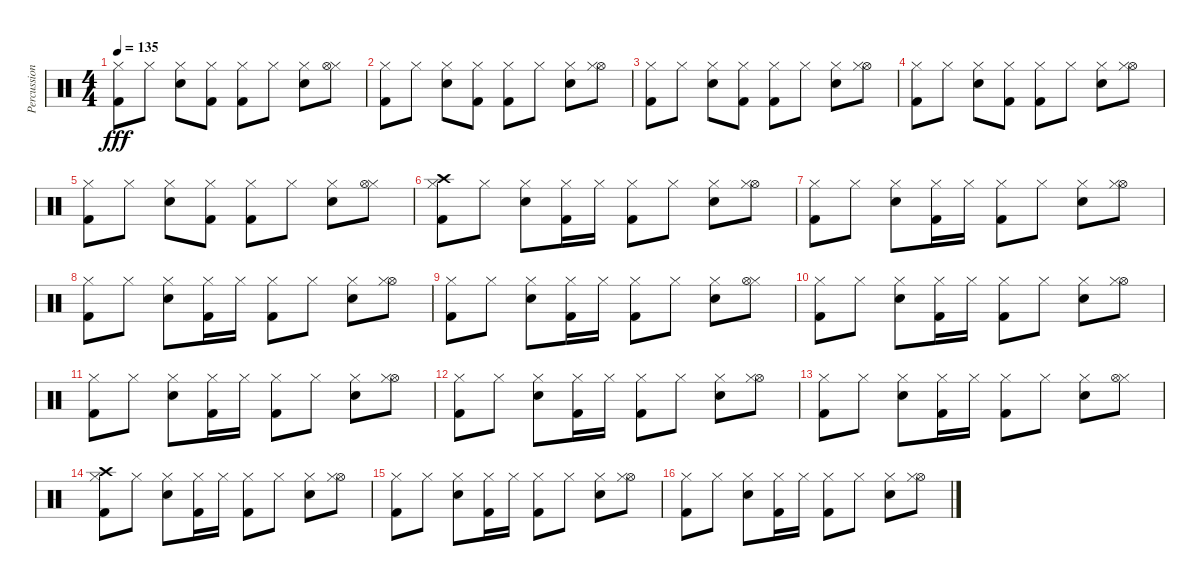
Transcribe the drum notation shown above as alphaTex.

\track ("Percussion" "Percussion") {instrument percussion}
\staff {score}
\articulation defaults
\ts (4 4)
\tempo 135
\clef neutral
\ks c
("Hi-Hat (closed)" "Kick (hit) 2").8{dy fff} "Hi-Hat (closed)".8 ("Hi-Hat (closed)" "Snare (hit) 2").8 ("Kick (hit) 2" "Hi-Hat (closed)").8 ("Hi-Hat (closed)" "Kick (hit) 2").8 "Hi-Hat (closed)".8 ("Snare (hit) 2" "Hi-Hat (closed)").8 ("Hi-Hat (closed)" "Hi-Hat (open)").8 |
("Hi-Hat (closed)" "Kick (hit) 2").8 "Hi-Hat (closed)".8 ("Hi-Hat (closed)" "Snare (hit) 2").8 ("Hi-Hat (closed)" "Kick (hit) 2").8 ("Hi-Hat (closed)" "Kick (hit) 2").8 "Hi-Hat (closed)".8 ("Snare (hit) 2" "Hi-Hat (closed)").8 ("Hi-Hat (open)" "Hi-Hat (closed)").8 |
("Hi-Hat (closed)" "Kick (hit) 2").8 "Hi-Hat (closed)".8 ("Hi-Hat (closed)" "Snare (hit) 2").8 ("Kick (hit) 2" "Hi-Hat (closed)").8 ("Hi-Hat (closed)" "Kick (hit) 2").8 "Hi-Hat (closed)".8 ("Hi-Hat (closed)" "Snare (hit) 2").8 ("Hi-Hat (open)" "Hi-Hat (closed)").8 |
("Hi-Hat (closed)" "Kick (hit) 2").8 "Hi-Hat (closed)".8 ("Snare (hit) 2" "Hi-Hat (closed)").8 ("Hi-Hat (closed)" "Kick (hit) 2").8 ("Hi-Hat (closed)" "Kick (hit) 2").8 "Hi-Hat (closed)".8 ("Hi-Hat (closed)" "Snare (hit) 2").8 ("Hi-Hat (open)" "Hi-Hat (closed)").8 |
("Hi-Hat (closed)" "Kick (hit) 2").8 "Hi-Hat (closed)".8 ("Hi-Hat (closed)" "Snare (hit) 2").8 ("Kick (hit) 2" "Hi-Hat (closed)").8 ("Hi-Hat (closed)" "Kick (hit) 2").8 "Hi-Hat (closed)".8 ("Snare (hit) 2" "Hi-Hat (closed)").8 ("Hi-Hat (closed)" "Hi-Hat (open)").8 |
("Crash high (hit)" "Hi-Hat (closed)" "Kick (hit) 2").8 "Hi-Hat (closed)".8 ("Hi-Hat (closed)" "Snare (hit) 2").8 ("Hi-Hat (closed)" "Kick (hit) 2").16 "Hi-Hat (closed)".16 ("Hi-Hat (closed)" "Kick (hit) 2").8 "Hi-Hat (closed)".8 ("Snare (hit) 2" "Hi-Hat (closed)").8 ("Hi-Hat (open)" "Hi-Hat (closed)").8 |
("Hi-Hat (closed)" "Kick (hit) 2").8 "Hi-Hat (closed)".8 ("Hi-Hat (closed)" "Snare (hit) 2").8 ("Kick (hit) 2" "Hi-Hat (closed)").16 "Hi-Hat (closed)".16 ("Hi-Hat (closed)" "Kick (hit) 2").8 "Hi-Hat (closed)".8 ("Hi-Hat (closed)" "Snare (hit) 2").8 ("Hi-Hat (open)" "Hi-Hat (closed)").8 |
("Hi-Hat (closed)" "Kick (hit) 2").8 "Hi-Hat (closed)".8 ("Snare (hit) 2" "Hi-Hat (closed)").8 ("Hi-Hat (closed)" "Kick (hit) 2").16 "Hi-Hat (closed)".16 ("Hi-Hat (closed)" "Kick (hit) 2").8 "Hi-Hat (closed)".8 ("Hi-Hat (closed)" "Snare (hit) 2").8 ("Hi-Hat (open)" "Hi-Hat (closed)").8 |
("Hi-Hat (closed)" "Kick (hit) 2").8 "Hi-Hat (closed)".8 ("Hi-Hat (closed)" "Snare (hit) 2").8 ("Kick (hit) 2" "Hi-Hat (closed)").16 "Hi-Hat (closed)".16 ("Hi-Hat (closed)" "Kick (hit) 2").8 "Hi-Hat (closed)".8 ("Snare (hit) 2" "Hi-Hat (closed)").8 ("Hi-Hat (closed)" "Hi-Hat (open)").8 |
("Hi-Hat (closed)" "Kick (hit) 2").8 "Hi-Hat (closed)".8 ("Hi-Hat (closed)" "Snare (hit) 2").8 ("Hi-Hat (closed)" "Kick (hit) 2").16 "Hi-Hat (closed)".16 ("Hi-Hat (closed)" "Kick (hit) 2").8 "Hi-Hat (closed)".8 ("Snare (hit) 2" "Hi-Hat (closed)").8 ("Hi-Hat (open)" "Hi-Hat (closed)").8 |
("Hi-Hat (closed)" "Kick (hit) 2").8 "Hi-Hat (closed)".8 ("Hi-Hat (closed)" "Snare (hit) 2").8 ("Kick (hit) 2" "Hi-Hat (closed)").16 "Hi-Hat (closed)".16 ("Hi-Hat (closed)" "Kick (hit) 2").8 "Hi-Hat (closed)".8 ("Hi-Hat (closed)" "Snare (hit) 2").8 ("Hi-Hat (open)" "Hi-Hat (closed)").8 |
("Hi-Hat (closed)" "Kick (hit) 2").8 "Hi-Hat (closed)".8 ("Snare (hit) 2" "Hi-Hat (closed)").8 ("Hi-Hat (closed)" "Kick (hit) 2").16 "Hi-Hat (closed)".16 ("Hi-Hat (closed)" "Kick (hit) 2").8 "Hi-Hat (closed)".8 ("Hi-Hat (closed)" "Snare (hit) 2").8 ("Hi-Hat (open)" "Hi-Hat (closed)").8 |
("Hi-Hat (closed)" "Kick (hit) 2").8 "Hi-Hat (closed)".8 ("Hi-Hat (closed)" "Snare (hit) 2").8 ("Kick (hit) 2" "Hi-Hat (closed)").16 "Hi-Hat (closed)".16 ("Hi-Hat (closed)" "Kick (hit) 2").8 "Hi-Hat (closed)".8 ("Snare (hit) 2" "Hi-Hat (closed)").8 ("Hi-Hat (closed)" "Hi-Hat (open)").8 |
("Crash high (hit)" "Hi-Hat (closed)" "Kick (hit) 2").8 "Hi-Hat (closed)".8 ("Hi-Hat (closed)" "Snare (hit) 2").8 ("Hi-Hat (closed)" "Kick (hit) 2").16 "Hi-Hat (closed)".16 ("Hi-Hat (closed)" "Kick (hit) 2").8 "Hi-Hat (closed)".8 ("Snare (hit) 2" "Hi-Hat (closed)").8 ("Hi-Hat (open)" "Hi-Hat (closed)").8 |
("Hi-Hat (closed)" "Kick (hit) 2").8 "Hi-Hat (closed)".8 ("Hi-Hat (closed)" "Snare (hit) 2").8 ("Kick (hit) 2" "Hi-Hat (closed)").16 "Hi-Hat (closed)".16 ("Hi-Hat (closed)" "Kick (hit) 2").8 "Hi-Hat (closed)".8 ("Hi-Hat (closed)" "Snare (hit) 2").8 ("Hi-Hat (open)" "Hi-Hat (closed)").8 |
("Hi-Hat (closed)" "Kick (hit) 2").8 "Hi-Hat (closed)".8 ("Snare (hit) 2" "Hi-Hat (closed)").8 ("Hi-Hat (closed)" "Kick (hit) 2").16 "Hi-Hat (closed)".16 ("Hi-Hat (closed)" "Kick (hit) 2").8 "Hi-Hat (closed)".8 ("Hi-Hat (closed)" "Snare (hit) 2").8 ("Hi-Hat (open)" "Hi-Hat (closed)").8
